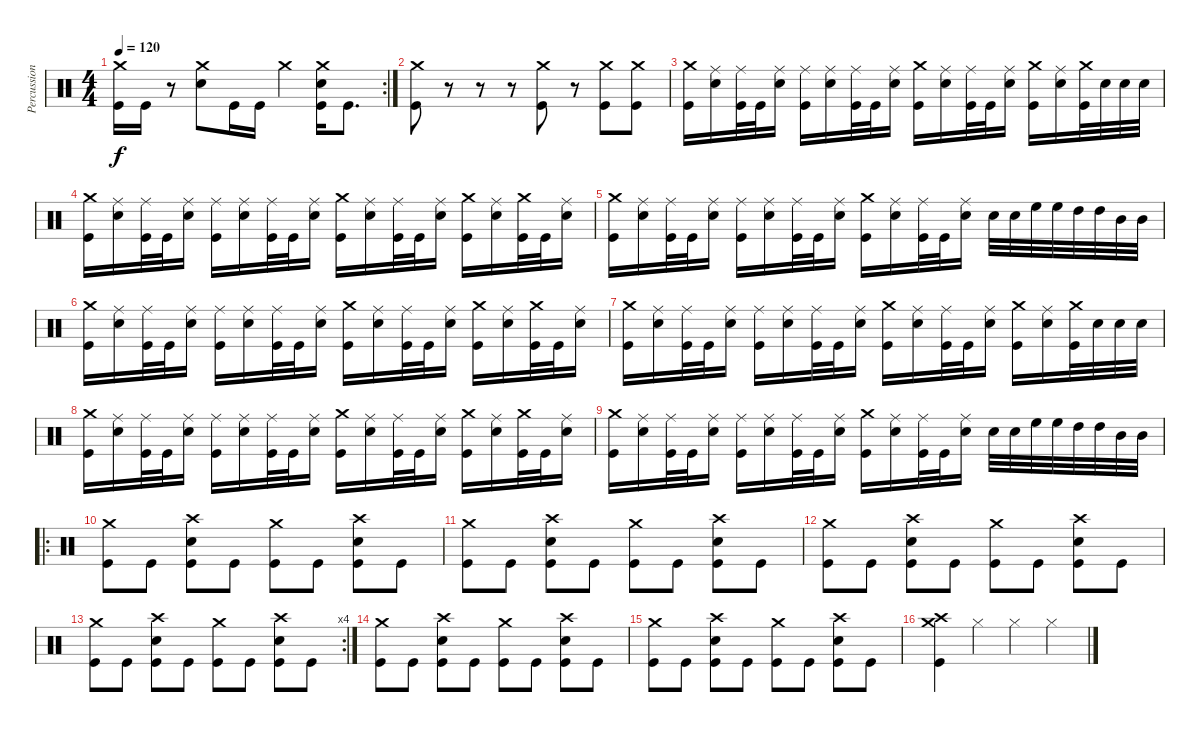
\track ("Percussion" "Percussion") {instrument percussion}
\staff {score}
\articulation defaults
\rc 2
\ts (4 4)
\tempo 120
\clef neutral
\ks c
("Crash medium (hit)" "Kick (hit)").16{dy f} "Kick (hit)".16 r.8 ("Crash medium (hit)" "Snare (hit) 2").8 "Kick (hit)".16 "Kick (hit)".16 "Crash medium (hit)".4 ("Crash medium (hit)" "Snare (hit) 2" "Kick (hit)").16 "Kick (hit)".8{d} |
("Crash medium (hit)" "Kick (hit)").8 r.8 r.8 r.8 ("Crash medium (hit)" "Kick (hit)").8 r.8 ("Crash medium (hit)" "Kick (hit)").8 ("Crash medium (hit)" "Kick (hit)").8 |
("Crash medium (hit)" "Kick (hit)").16 ("Ride (middle)" "Snare (hit) 2").16 ("Ride (middle)" "Kick (hit)").32 "Kick (hit)".32 ("Ride (middle)" "Snare (hit) 2").16 ("Ride (middle)" "Kick (hit)").16 ("Ride (middle)" "Snare (hit) 2").16 ("Ride (middle)" "Kick (hit)").32 "Kick (hit)".32 ("Ride (middle)" "Snare (hit) 2").16 ("Crash medium (hit)" "Kick (hit)").16 ("Ride (middle)" "Snare (hit) 2").16 ("Ride (middle)" "Kick (hit)").32 "Kick (hit)".32 ("Ride (middle)" "Snare (hit) 2").16 ("Crash medium (hit)" "Kick (hit)").16 ("Ride (middle)" "Snare (hit) 2").16 ("Crash medium (hit)" "Kick (hit)").32 "Snare (hit) 2".32 "Snare (hit) 2".32 "Snare (hit) 2".32 |
("Crash medium (hit)" "Kick (hit)").16 ("Ride (middle)" "Snare (hit) 2").16 ("Ride (middle)" "Kick (hit)").32 "Kick (hit)".32 ("Ride (middle)" "Snare (hit) 2").16 ("Ride (middle)" "Kick (hit)").16 ("Ride (middle)" "Snare (hit) 2").16 ("Ride (middle)" "Kick (hit)").32 "Kick (hit)".32 ("Ride (middle)" "Snare (hit) 2").16 ("Crash medium (hit)" "Kick (hit)").16 ("Ride (middle)" "Snare (hit) 2").16 ("Ride (middle)" "Kick (hit)").32 "Kick (hit)".32 ("Ride (middle)" "Snare (hit) 2").16 ("Crash medium (hit)" "Kick (hit)").16 ("Ride (middle)" "Snare (hit) 2").16 ("Crash medium (hit)" "Kick (hit)").32 "Kick (hit)".32 ("Ride (middle)" "Snare (hit) 2").16 |
("Crash medium (hit)" "Kick (hit)").16 ("Ride (middle)" "Snare (hit) 2").16 ("Ride (middle)" "Kick (hit)").32 "Kick (hit)".32 ("Ride (middle)" "Snare (hit) 2").16 ("Ride (middle)" "Kick (hit)").16 ("Ride (middle)" "Snare (hit) 2").16 ("Ride (middle)" "Kick (hit)").32 "Kick (hit)".32 ("Ride (middle)" "Snare (hit) 2").16 ("Crash medium (hit)" "Kick (hit)").16 ("Ride (middle)" "Snare (hit) 2").16 ("Ride (middle)" "Kick (hit)").32 "Kick (hit)".32 ("Ride (middle)" "Snare (hit) 2").16 "Snare (hit) 2".32 "Snare (hit) 2".32 "High Floor Tom (hit)".32 "High Floor Tom (hit)".32 "High Tom (hit)".32 "High Tom (hit)".32 "Mid Tom (hit)".32 "Mid Tom (hit)".32 |
("Crash medium (hit)" "Kick (hit)").16 ("Ride (middle)" "Snare (hit) 2").16 ("Ride (middle)" "Kick (hit)").32 "Kick (hit)".32 ("Ride (middle)" "Snare (hit) 2").16 ("Ride (middle)" "Kick (hit)").16 ("Ride (middle)" "Snare (hit) 2").16 ("Ride (middle)" "Kick (hit)").32 "Kick (hit)".32 ("Ride (middle)" "Snare (hit) 2").16 ("Crash medium (hit)" "Kick (hit)").16 ("Ride (middle)" "Snare (hit) 2").16 ("Ride (middle)" "Kick (hit)").32 "Kick (hit)".32 ("Ride (middle)" "Snare (hit) 2").16 ("Crash medium (hit)" "Kick (hit)").16 ("Ride (middle)" "Snare (hit) 2").16 ("Crash medium (hit)" "Kick (hit)").32 "Kick (hit)".32 ("Ride (middle)" "Snare (hit) 2").16 |
("Crash medium (hit)" "Kick (hit)").16 ("Ride (middle)" "Snare (hit) 2").16 ("Ride (middle)" "Kick (hit)").32 "Kick (hit)".32 ("Ride (middle)" "Snare (hit) 2").16 ("Ride (middle)" "Kick (hit)").16 ("Ride (middle)" "Snare (hit) 2").16 ("Ride (middle)" "Kick (hit)").32 "Kick (hit)".32 ("Ride (middle)" "Snare (hit) 2").16 ("Crash medium (hit)" "Kick (hit)").16 ("Ride (middle)" "Snare (hit) 2").16 ("Ride (middle)" "Kick (hit)").32 "Kick (hit)".32 ("Ride (middle)" "Snare (hit) 2").16 ("Crash medium (hit)" "Kick (hit)").16 ("Ride (middle)" "Snare (hit) 2").16 ("Crash medium (hit)" "Kick (hit)").32 "Snare (hit) 2".32 "Snare (hit) 2".32 "Snare (hit) 2".32 |
("Crash medium (hit)" "Kick (hit)").16 ("Ride (middle)" "Snare (hit) 2").16 ("Ride (middle)" "Kick (hit)").32 "Kick (hit)".32 ("Ride (middle)" "Snare (hit) 2").16 ("Ride (middle)" "Kick (hit)").16 ("Ride (middle)" "Snare (hit) 2").16 ("Ride (middle)" "Kick (hit)").32 "Kick (hit)".32 ("Ride (middle)" "Snare (hit) 2").16 ("Crash medium (hit)" "Kick (hit)").16 ("Ride (middle)" "Snare (hit) 2").16 ("Ride (middle)" "Kick (hit)").32 "Kick (hit)".32 ("Ride (middle)" "Snare (hit) 2").16 ("Crash medium (hit)" "Kick (hit)").16 ("Ride (middle)" "Snare (hit) 2").16 ("Crash medium (hit)" "Kick (hit)").32 "Kick (hit)".32 ("Ride (middle)" "Snare (hit) 2").16 |
("Crash medium (hit)" "Kick (hit)").16 ("Ride (middle)" "Snare (hit) 2").16 ("Ride (middle)" "Kick (hit)").32 "Kick (hit)".32 ("Ride (middle)" "Snare (hit) 2").16 ("Ride (middle)" "Kick (hit)").16 ("Ride (middle)" "Snare (hit) 2").16 ("Ride (middle)" "Kick (hit)").32 "Kick (hit)".32 ("Ride (middle)" "Snare (hit) 2").16 ("Crash medium (hit)" "Kick (hit)").16 ("Ride (middle)" "Snare (hit) 2").16 ("Ride (middle)" "Kick (hit)").32 "Kick (hit)".32 ("Ride (middle)" "Snare (hit) 2").16 "Snare (hit) 2".32 "Snare (hit) 2".32 "High Floor Tom (hit)".32 "High Floor Tom (hit)".32 "High Tom (hit)".32 "High Tom (hit)".32 "Mid Tom (hit)".32 "Mid Tom (hit)".32 |
\ro
("Crash medium (hit)" "Kick (hit)").8 "Kick (hit)".8 ("Crash high (hit)" "Snare (hit) 2" "Kick (hit)").8 "Kick (hit)".8 ("Crash medium (hit)" "Kick (hit)").8 "Kick (hit)".8 ("Crash high (hit)" "Snare (hit) 2" "Kick (hit)").8 "Kick (hit)".8 |
("Crash medium (hit)" "Kick (hit)").8 "Kick (hit)".8 ("Crash high (hit)" "Snare (hit) 2" "Kick (hit)").8 "Kick (hit)".8 ("Crash medium (hit)" "Kick (hit)").8 "Kick (hit)".8 ("Crash high (hit)" "Snare (hit) 2" "Kick (hit)").8 "Kick (hit)".8 |
("Crash medium (hit)" "Kick (hit)").8 "Kick (hit)".8 ("Crash high (hit)" "Snare (hit) 2" "Kick (hit)").8 "Kick (hit)".8 ("Crash medium (hit)" "Kick (hit)").8 "Kick (hit)".8 ("Crash high (hit)" "Snare (hit) 2" "Kick (hit)").8 "Kick (hit)".8 |
\rc 4
("Crash medium (hit)" "Kick (hit)").8 "Kick (hit)".8 ("Crash high (hit)" "Snare (hit) 2" "Kick (hit)").8 "Kick (hit)".8 ("Crash medium (hit)" "Kick (hit)").8 "Kick (hit)".8 ("Crash high (hit)" "Snare (hit) 2" "Kick (hit)").8 "Kick (hit)".8 |
("Crash medium (hit)" "Kick (hit)").8 "Kick (hit)".8 ("Crash high (hit)" "Snare (hit) 2" "Kick (hit)").8 "Kick (hit)".8 ("Crash medium (hit)" "Kick (hit)").8 "Kick (hit)".8 ("Crash high (hit)" "Snare (hit) 2" "Kick (hit)").8 "Kick (hit)".8 |
("Crash medium (hit)" "Kick (hit)").8 "Kick (hit)".8 ("Crash high (hit)" "Snare (hit) 2" "Kick (hit)").8 "Kick (hit)".8 ("Crash medium (hit)" "Kick (hit)").8 "Kick (hit)".8 ("Crash high (hit)" "Snare (hit) 2" "Kick (hit)").8 "Kick (hit)".8 |
("Crash medium (hit)" "Crash high (hit)" "Kick (hit)").4 "Hi-Hat (closed)".4 "Hi-Hat (closed)".4 "Hi-Hat (closed)".4
